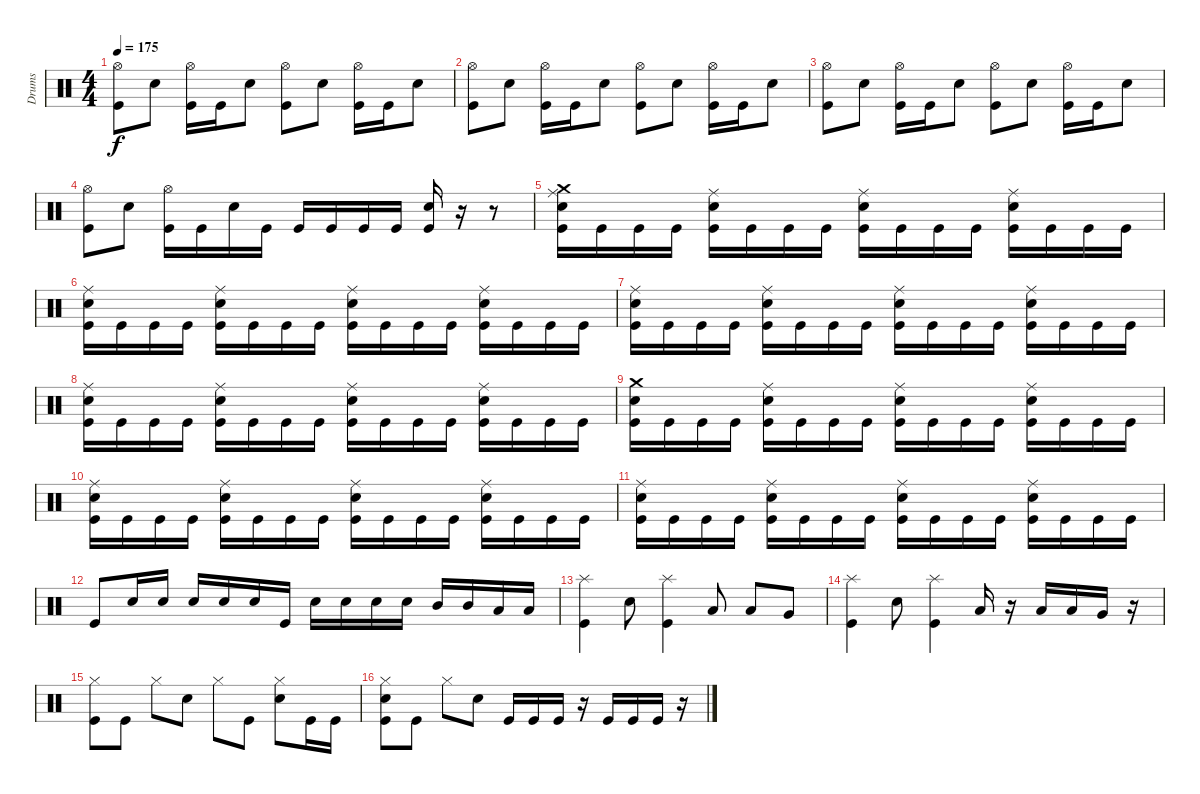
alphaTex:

\track ("Drums" "Drums") {instrument percussion}
\staff {score}
\articulation defaults
\ts (4 4)
\tempo 175
\clef neutral
\ks c
("Hi-Hat (open)" "Kick (hit)").8{dy f} "Snare (hit) 2".8 ("Hi-Hat (open)" "Kick (hit)").16 "Kick (hit)".16 "Snare (hit) 2".8 ("Hi-Hat (open)" "Kick (hit)").8 "Snare (hit) 2".8 ("Hi-Hat (open)" "Kick (hit)").16 "Kick (hit)".16 "Snare (hit) 2".8 |
("Hi-Hat (open)" "Kick (hit)").8 "Snare (hit) 2".8 ("Hi-Hat (open)" "Kick (hit)").16 "Kick (hit)".16 "Snare (hit) 2".8 ("Hi-Hat (open)" "Kick (hit)").8 "Snare (hit) 2".8 ("Hi-Hat (open)" "Kick (hit)").16 "Kick (hit)".16 "Snare (hit) 2".8 |
("Hi-Hat (open)" "Kick (hit)").8 "Snare (hit) 2".8 ("Hi-Hat (open)" "Kick (hit)").16 "Kick (hit)".16 "Snare (hit) 2".8 ("Hi-Hat (open)" "Kick (hit)").8 "Snare (hit) 2".8 ("Hi-Hat (open)" "Kick (hit)").16 "Kick (hit)".16 "Snare (hit) 2".8 |
("Hi-Hat (open)" "Kick (hit)").8 "Snare (hit) 2".8 ("Hi-Hat (open)" "Kick (hit)").16 "Kick (hit)".16 "Snare (hit) 2".16 "Kick (hit)".16 "Kick (hit)".16 "Kick (hit)".16 "Kick (hit)".16 "Kick (hit)".16 ("Snare (hit) 2" "Kick (hit)").16 r.16 r.8 |
("Ride (middle)" "Crash medium (hit)" "Snare (hit) 2" "Kick (hit)").16 "Kick (hit)".16 "Kick (hit)".16 "Kick (hit)".16 ("Ride (middle)" "Snare (hit) 2" "Kick (hit)").16 "Kick (hit)".16 "Kick (hit)".16 "Kick (hit)".16 ("Ride (middle)" "Snare (hit) 2" "Kick (hit)").16 "Kick (hit)".16 "Kick (hit)".16 "Kick (hit)".16 ("Ride (middle)" "Snare (hit) 2" "Kick (hit)").16 "Kick (hit)".16 "Kick (hit)".16 "Kick (hit)".16 |
("Ride (middle)" "Snare (hit) 2" "Kick (hit)").16 "Kick (hit)".16 "Kick (hit)".16 "Kick (hit)".16 ("Ride (middle)" "Snare (hit) 2" "Kick (hit)").16 "Kick (hit)".16 "Kick (hit)".16 "Kick (hit)".16 ("Ride (middle)" "Snare (hit) 2" "Kick (hit)").16 "Kick (hit)".16 "Kick (hit)".16 "Kick (hit)".16 ("Ride (middle)" "Snare (hit) 2" "Kick (hit)").16 "Kick (hit)".16 "Kick (hit)".16 "Kick (hit)".16 |
("Ride (middle)" "Snare (hit) 2" "Kick (hit)").16 "Kick (hit)".16 "Kick (hit)".16 "Kick (hit)".16 ("Ride (middle)" "Snare (hit) 2" "Kick (hit)").16 "Kick (hit)".16 "Kick (hit)".16 "Kick (hit)".16 ("Ride (middle)" "Snare (hit) 2" "Kick (hit)").16 "Kick (hit)".16 "Kick (hit)".16 "Kick (hit)".16 ("Ride (middle)" "Snare (hit) 2" "Kick (hit)").16 "Kick (hit)".16 "Kick (hit)".16 "Kick (hit)".16 |
("Ride (middle)" "Snare (hit) 2" "Kick (hit)").16 "Kick (hit)".16 "Kick (hit)".16 "Kick (hit)".16 ("Ride (middle)" "Snare (hit) 2" "Kick (hit)").16 "Kick (hit)".16 "Kick (hit)".16 "Kick (hit)".16 ("Ride (middle)" "Snare (hit) 2" "Kick (hit)").16 "Kick (hit)".16 "Kick (hit)".16 "Kick (hit)".16 ("Ride (middle)" "Snare (hit) 2" "Kick (hit)").16 "Kick (hit)".16 "Kick (hit)".16 "Kick (hit)".16 |
("Crash medium (hit)" "Snare (hit) 2" "Kick (hit)").16 "Kick (hit)".16 "Kick (hit)".16 "Kick (hit)".16 ("Ride (middle)" "Snare (hit) 2" "Kick (hit)").16 "Kick (hit)".16 "Kick (hit)".16 "Kick (hit)".16 ("Ride (middle)" "Snare (hit) 2" "Kick (hit)").16 "Kick (hit)".16 "Kick (hit)".16 "Kick (hit)".16 ("Ride (middle)" "Snare (hit) 2" "Kick (hit)").16 "Kick (hit)".16 "Kick (hit)".16 "Kick (hit)".16 |
("Ride (middle)" "Snare (hit) 2" "Kick (hit)").16 "Kick (hit)".16 "Kick (hit)".16 "Kick (hit)".16 ("Ride (middle)" "Snare (hit) 2" "Kick (hit)").16 "Kick (hit)".16 "Kick (hit)".16 "Kick (hit)".16 ("Ride (middle)" "Snare (hit) 2" "Kick (hit)").16 "Kick (hit)".16 "Kick (hit)".16 "Kick (hit)".16 ("Ride (middle)" "Snare (hit) 2" "Kick (hit)").16 "Kick (hit)".16 "Kick (hit)".16 "Kick (hit)".16 |
("Ride (middle)" "Snare (hit) 2" "Kick (hit)").16 "Kick (hit)".16 "Kick (hit)".16 "Kick (hit)".16 ("Ride (middle)" "Snare (hit) 2" "Kick (hit)").16 "Kick (hit)".16 "Kick (hit)".16 "Kick (hit)".16 ("Ride (middle)" "Snare (hit) 2" "Kick (hit)").16 "Kick (hit)".16 "Kick (hit)".16 "Kick (hit)".16 ("Ride (middle)" "Snare (hit) 2" "Kick (hit)").16 "Kick (hit)".16 "Kick (hit)".16 "Kick (hit)".16 |
"Kick (hit)".8 "Snare (hit) 2".16 "Snare (hit) 2".16 "Snare (hit) 2".16 "Snare (hit) 2".16 "Snare (hit) 2".16 "Kick (hit)".16 "Snare (hit) 2".16 "Snare (hit) 2".16 "Snare (hit) 2".16 "Snare (hit) 2".16 "Mid Tom (hit)".16 "Mid Tom (hit)".16 "Low Tom (hit)".16 "Low Tom (hit)".16 |
("Splash (hit)" "Kick (hit)").4 "Snare (hit) 2".8 ("Splash (hit)" "Kick (hit)").4 "Low Tom (hit)".8 "Low Tom (hit)".8 "Very Low Tom (hit)".8 |
("Splash (hit)" "Kick (hit)").4 "Snare (hit) 2".8 ("Splash (hit)" "Kick (hit)").4 "Low Tom (hit)".16 r.16 "Low Tom (hit)".16 "Low Tom (hit)".16 "Very Low Tom (hit)".16 r.16 |
("Hi-Hat (closed)" "Kick (hit)").8 "Kick (hit)".8 "Hi-Hat (closed)".8 "Snare (hit) 2".8 "Hi-Hat (closed)".8 "Kick (hit)".8 ("Hi-Hat (closed)" "Snare (hit) 2").8 "Kick (hit)".16 "Kick (hit)".16 |
("Hi-Hat (closed)" "Snare (hit) 2" "Kick (hit)").8 "Kick (hit)".8 "Hi-Hat (closed)".8 "Snare (hit) 2".8 "Kick (hit)".16 "Kick (hit)".16 "Kick (hit)".16 r.16 "Kick (hit)".16 "Kick (hit)".16 "Kick (hit)".16 r.16
